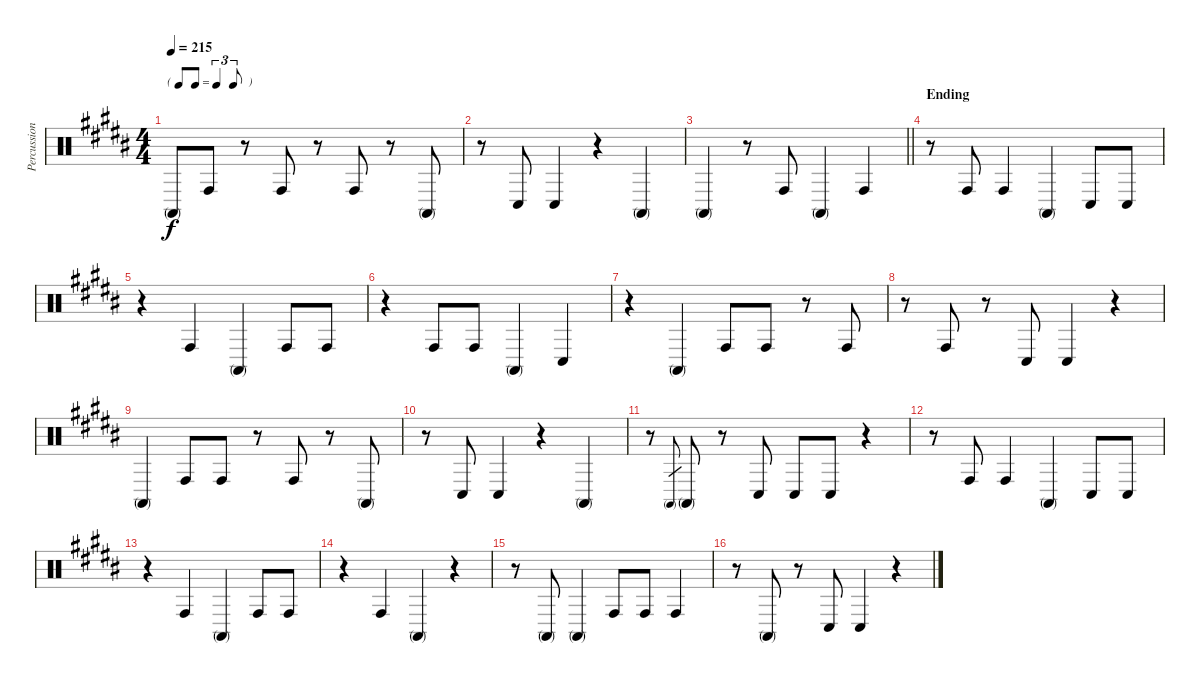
\track ("Percussion A (Tainaka Ritsu)" "Percussion") {instrument percussion}
\staff {score}
\articulation defaults
\ts (4 4)
\tf triplet8th
\tempo 215
\clef neutral
\ks b "Conga high (mute)".8{dy f} "Conga high (hit)".8
r.8 "Conga high (hit)".8 r.8 "Conga high (hit)".8 r.8 "Conga high (mute)".8 |
r.8 "Conga low (hit)".8 "Conga low (hit)".4 r.4 "Conga high (mute)".4 |
\barLineRight lightlight "Conga high (mute)".4
r.8 "Conga high (hit)".8 "Conga high (mute)".4 "Conga high (hit)".4 |
\section ("" "Ending")
r.8 "Conga high (hit)".8 "Conga high (hit)".4 "Conga high (mute)".4 "Conga low (hit)".8 "Conga low (hit)".8 |
r.4 "Conga high (hit)".4 "Conga high (mute)".4 "Conga high (hit)".8 "Conga high (hit)".8 |
r.4 "Conga high (hit)".8 "Conga high (hit)".8 "Conga high (mute)".4 "Conga low (hit)".4 |
r.4 "Conga high (mute)".4 "Conga high (hit)".8 "Conga high (hit)".8 r.8 "Conga high (hit)".8 |
r.8 "Conga high (hit)".8 r.8 "Conga low (hit)".8 "Conga low (hit)".4 r.4 |
"Conga high (mute)".4 "Conga high (hit)".8 "Conga high (hit)".8 r.8 "Conga high (hit)".8 r.8 "Conga high (mute)".8 |
r.8 "Conga low (hit)".8 "Conga low (hit)".4 r.4 "Conga high (mute)".4 |
r.8 "Conga high (mute)".8{gr} "Conga high (mute)".8 r.8 "Conga low (hit)".8 "Conga low (hit)".8 "Conga low (hit)".8 r.4 |
r.8 "Conga high (hit)".8 "Conga high (hit)".4 "Conga high (mute)".4 "Conga low (hit)".8 "Conga low (hit)".8 |
r.4 "Conga high (hit)".4 "Conga high (mute)".4 "Conga high (hit)".8 "Conga high (hit)".8 |
r.4 "Conga high (hit)".4 "Conga high (mute)".4 r.4 |
r.8 "Conga high (mute)".8 "Conga high (mute)".4 "Conga high (hit)".8 "Conga high (hit)".8 "Conga high (hit)".4 |
r.8 "Conga high (mute)".8 r.8 "Conga low (hit)".8 "Conga low (hit)".4 r.4
